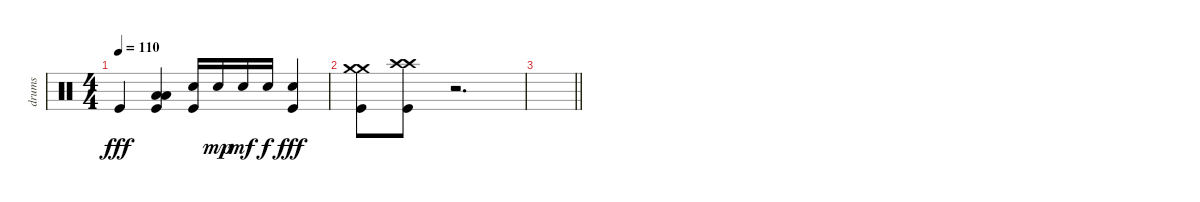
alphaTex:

\track ("drums" "drums") {instrument percussion}
\staff {score}
\articulation defaults
\ts (4 4)
\tempo 110
\clef neutral
\ks c "Kick (hit)".4{dy fff}
("Low Tom (hit)" "Low Floor Tom (hit)" "Kick (hit)").4 ("Electric Snare (hit)" "Kick (hit)").16 "Electric Snare (hit)".16{dy mp} "Electric Snare (hit)".16{dy mf} "Electric Snare (hit)".16{dy f} ("Electric Snare (hit)" "Kick (hit)").4{dy fff} |
("Crash medium (hit)" "Crash medium (hit)" "Kick (hit)").8 ("Crash high (hit)" "Crash high (hit)" "Kick (hit)").8 r.2{d} |
\barLineRight lightlight
